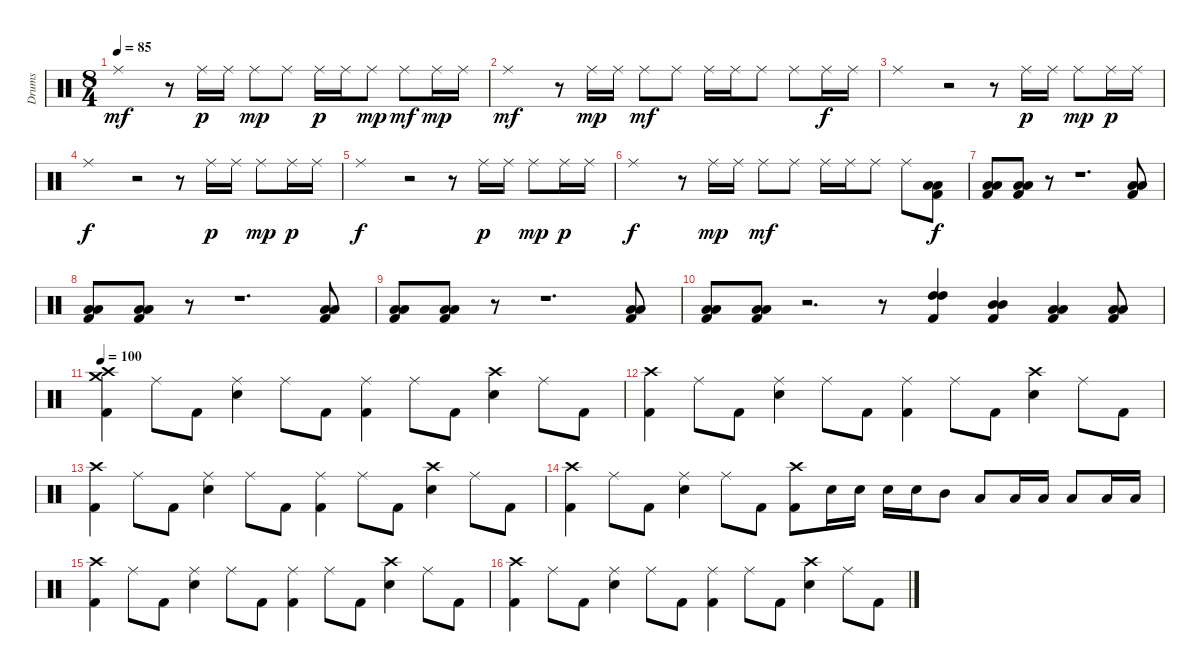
\track ("Drums" "Drums") {instrument percussion}
\staff {score}
\articulation defaults
\ts (8 4)
\tempo 85
\clef neutral
\ks c "Ride (middle)".1{dy mf}
r.8 "Ride (middle)".16{dy p} "Ride (middle)".16 "Ride (middle)".8{dy mp} "Ride (middle)".8 "Ride (middle)".16{dy p} "Ride (middle)".16 "Ride (middle)".8{dy mp} "Ride (middle)".8{dy mf} "Ride (middle)".16{dy mp} "Ride (middle)".16 |
"Ride (middle)".1{dy mf} r.8 "Ride (middle)".16{dy mp} "Ride (middle)".16 "Ride (middle)".8{dy mf} "Ride (middle)".8 "Ride (middle)".16 "Ride (middle)".16 "Ride (middle)".8 "Ride (middle)".8 "Ride (middle)".16{dy f} "Ride (middle)".16 |
"Ride (middle)".1 r.2 r.8 "Ride (middle)".16{dy p} "Ride (middle)".16 "Ride (middle)".8{dy mp} "Ride (middle)".16{dy p} "Ride (middle)".16 |
"Ride (middle)".1{dy f} r.2 r.8 "Ride (middle)".16{dy p} "Ride (middle)".16 "Ride (middle)".8{dy mp} "Ride (middle)".16{dy p} "Ride (middle)".16 |
"Ride (middle)".1{dy f} r.2 r.8 "Ride (middle)".16{dy p} "Ride (middle)".16 "Ride (middle)".8{dy mp} "Ride (middle)".16{dy p} "Ride (middle)".16 |
"Ride (middle)".1{dy f} r.8 "Ride (middle)".16{dy mp} "Ride (middle)".16 "Ride (middle)".8{dy mf} "Ride (middle)".8 "Ride (middle)".16 "Ride (middle)".16 "Ride (middle)".8 "Ride (middle)".8 ("Low Tom (hit)" "Low Tom (hit)" "Kick (hit) 2").8{dy f} |
("Low Tom (hit)" "Low Tom (hit)" "Kick (hit) 2").8 ("Low Tom (hit)" "Low Tom (hit)" "Kick (hit) 2").8 r.8 r.1{d} ("Low Tom (hit)" "Low Tom (hit)" "Kick (hit) 2").8 |
("Low Tom (hit)" "Low Tom (hit)" "Kick (hit) 2").8 ("Low Tom (hit)" "Low Tom (hit)" "Kick (hit) 2").8 r.8 r.1{d} ("Low Tom (hit)" "Low Tom (hit)" "Kick (hit) 2").8 |
("Low Tom (hit)" "Low Tom (hit)" "Kick (hit) 2").8 ("Low Tom (hit)" "Low Tom (hit)" "Kick (hit) 2").8 r.8 r.1{d} ("Low Tom (hit)" "Low Tom (hit)" "Kick (hit) 2").8 |
("Low Tom (hit)" "Low Tom (hit)" "Kick (hit) 2").8 ("Low Tom (hit)" "Low Tom (hit)" "Kick (hit) 2").8 r.2{d} r.8 ("High Tom (hit)" "High Tom (hit)" "Kick (hit) 2").4{bd 60} ("Mid Tom (hit)" "Mid Tom (hit)" "Kick (hit) 2").4{bd 30} ("Low Tom (hit)" "Low Tom (hit)" "Kick (hit) 2").4{bd 30} ("Low Tom (hit)" "Low Tom (hit)" "Kick (hit) 2").8 |
\tempo 100
("Crash high (hit)" "Crash medium (hit)" "Kick (hit) 2").4 "Ride (middle)".8 "Kick (hit) 2".8 ("Ride (middle)" "Electric Snare (hit)").4 "Ride (middle)".8 "Kick (hit) 2".8 ("Ride (middle)" "Kick (hit) 2").4 "Ride (middle)".8 "Kick (hit) 2".8 ("Crash high (hit)" "Electric Snare (hit)").4 "Ride (middle)".8 "Kick (hit) 2".8 |
("Crash high (hit)" "Kick (hit) 2").4 "Ride (middle)".8 "Kick (hit) 2".8 ("Ride (middle)" "Electric Snare (hit)").4 "Ride (middle)".8 "Kick (hit) 2".8 ("Ride (middle)" "Kick (hit) 2").4 "Ride (middle)".8 "Kick (hit) 2".8 ("Crash high (hit)" "Electric Snare (hit)").4 "Ride (middle)".8 "Kick (hit) 2".8 |
("Crash high (hit)" "Kick (hit) 2").4 "Ride (middle)".8 "Kick (hit) 2".8 ("Ride (middle)" "Electric Snare (hit)").4 "Ride (middle)".8 "Kick (hit) 2".8 ("Ride (middle)" "Kick (hit) 2").4 "Ride (middle)".8 "Kick (hit) 2".8 ("Crash high (hit)" "Electric Snare (hit)").4 "Ride (middle)".8 "Kick (hit) 2".8 |
("Crash high (hit)" "Kick (hit) 2").4 "Ride (middle)".8 "Kick (hit) 2".8 ("Ride (middle)" "Electric Snare (hit)").4 "Ride (middle)".8 "Kick (hit) 2".8 ("Crash high (hit)" "Kick (hit) 2").8 "Electric Snare (hit)".16 "Electric Snare (hit)".16 "Electric Snare (hit)".16 "Electric Snare (hit)".16 "Mid Tom (hit)".8 "Low Tom (hit)".8 "Low Tom (hit)".16 "Low Tom (hit)".16 "Low Tom (hit)".8 "Low Tom (hit)".16 "Low Tom (hit)".16 |
("Crash high (hit)" "Kick (hit) 2").4 "Ride (middle)".8 "Kick (hit) 2".8 ("Ride (middle)" "Electric Snare (hit)").4 "Ride (middle)".8 "Kick (hit) 2".8 ("Ride (middle)" "Kick (hit) 2").4 "Ride (middle)".8 "Kick (hit) 2".8 ("Crash high (hit)" "Electric Snare (hit)").4 "Ride (middle)".8 "Kick (hit) 2".8 |
("Crash high (hit)" "Kick (hit) 2").4 "Ride (middle)".8 "Kick (hit) 2".8 ("Ride (middle)" "Electric Snare (hit)").4 "Ride (middle)".8 "Kick (hit) 2".8 ("Ride (middle)" "Kick (hit) 2").4 "Ride (middle)".8 "Kick (hit) 2".8 ("Crash high (hit)" "Electric Snare (hit)").4 "Ride (middle)".8 "Kick (hit) 2".8
